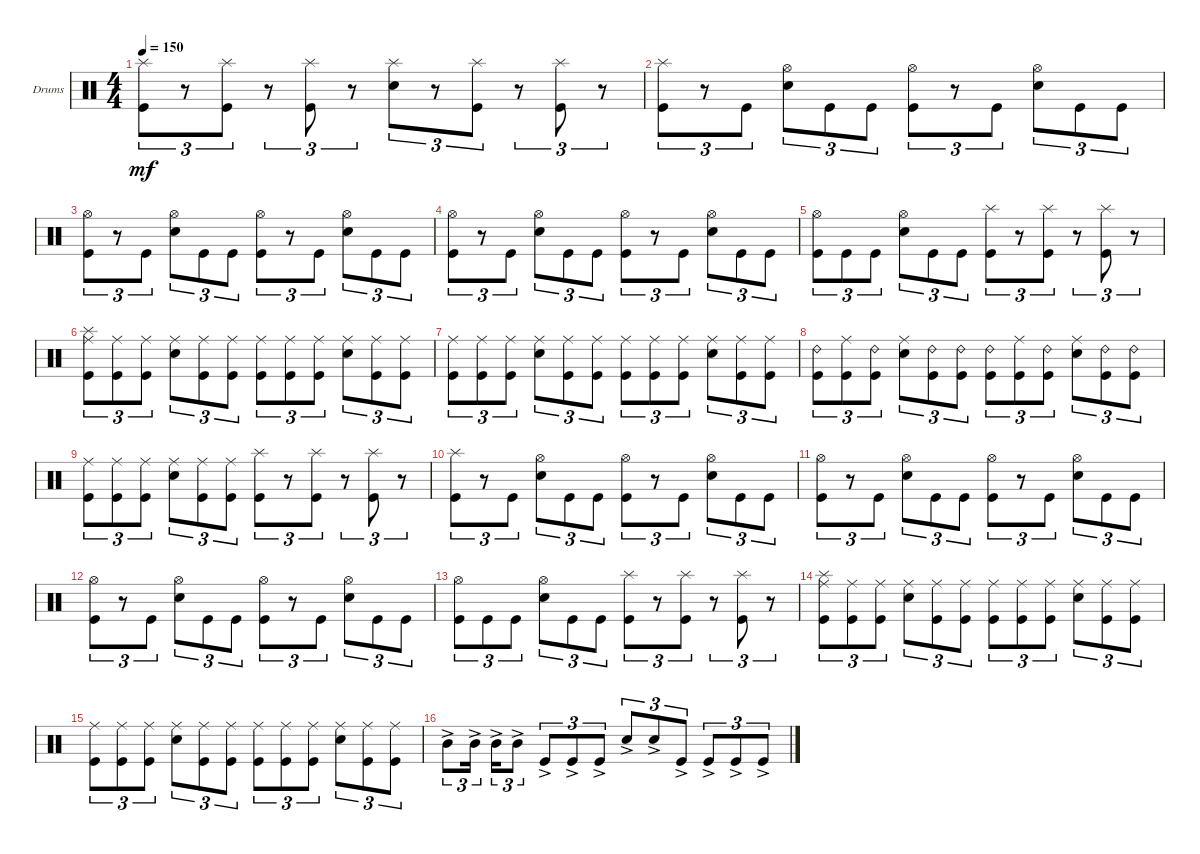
\bracketExtendMode groupsimilarinstruments
\firstSystemTrackNameOrientation horizontal
\otherSystemsTrackNameOrientation horizontal
\track ("Drumkit" "Drums") {instrument percussion}
\staff {score}
\articulation defaults
\ts (4 4)
\tempo 150
\clef neutral
\ks c
("Kick (hit)" "Splash (hit)").8{tu (3 2) dy mf} r.8{tu (3 2)} ("Kick (hit)" "Splash (hit)").8{tu (3 2)} r.8{tu (3 2)} ("Kick (hit)" "Splash (hit)").8{tu (3 2)} r.8{tu (3 2)} ("Splash (hit)" "Snare (hit) 2").8{tu (3 2)} r.8{tu (3 2)} ("Kick (hit)" "Splash (hit)").8{tu (3 2)} r.8{tu (3 2)} ("Kick (hit)" "Splash (hit)").8{tu (3 2)} r.8{tu (3 2)} |
("Kick (hit)" "Splash (hit)").8{tu (3 2)} r.8{tu (3 2)} "Kick (hit)".8{tu (3 2)} ("Snare (hit) 2" "Hi-Hat (open)").8{tu (3 2)} "Kick (hit)".8{tu (3 2)} "Kick (hit)".8{tu (3 2)} ("Kick (hit)" "Hi-Hat (open)").8{tu (3 2)} r.8{tu (3 2)} "Kick (hit)".8{tu (3 2)} ("Snare (hit) 2" "Hi-Hat (open)").8{tu (3 2)} "Kick (hit)".8{tu (3 2)} "Kick (hit)".8{tu (3 2)} |
("Kick (hit)" "Hi-Hat (open)").8{tu (3 2)} r.8{tu (3 2)} "Kick (hit)".8{tu (3 2)} ("Snare (hit) 2" "Hi-Hat (open)").8{tu (3 2)} "Kick (hit)".8{tu (3 2)} "Kick (hit)".8{tu (3 2)} ("Kick (hit)" "Hi-Hat (open)").8{tu (3 2)} r.8{tu (3 2)} "Kick (hit)".8{tu (3 2)} ("Snare (hit) 2" "Hi-Hat (open)").8{tu (3 2)} "Kick (hit)".8{tu (3 2)} "Kick (hit)".8{tu (3 2)} |
("Kick (hit)" "Hi-Hat (open)").8{tu (3 2)} r.8{tu (3 2)} "Kick (hit)".8{tu (3 2)} ("Snare (hit) 2" "Hi-Hat (open)").8{tu (3 2)} "Kick (hit)".8{tu (3 2)} "Kick (hit)".8{tu (3 2)} ("Kick (hit)" "Hi-Hat (open)").8{tu (3 2)} r.8{tu (3 2)} "Kick (hit)".8{tu (3 2)} ("Snare (hit) 2" "Hi-Hat (open)").8{tu (3 2)} "Kick (hit)".8{tu (3 2)} "Kick (hit)".8{tu (3 2)} |
("Kick (hit)" "Hi-Hat (open)").8{tu (3 2)} "Kick (hit)".8{tu (3 2)} "Kick (hit)".8{tu (3 2)} ("Snare (hit) 2" "Hi-Hat (open)").8{tu (3 2)} "Kick (hit)".8{tu (3 2)} "Kick (hit)".8{tu (3 2)} ("Kick (hit)" "Splash (hit)").8{tu (3 2)} r.8{tu (3 2)} ("Kick (hit)" "Splash (hit)").8{tu (3 2)} r.8{tu (3 2)} ("Kick (hit)" "Splash (hit)").8{tu (3 2)} r.8{tu (3 2)} |
("Kick (hit)" "Splash (hit)" "Ride (middle)").8{tu (3 2)} ("Kick (hit)" "Ride (middle)").8{tu (3 2)} ("Kick (hit)" "Ride (middle)").8{tu (3 2)} ("Ride (middle)" "Snare (hit) 2").8{tu (3 2)} ("Kick (hit)" "Ride (middle)").8{tu (3 2)} ("Kick (hit)" "Ride (middle)").8{tu (3 2)} ("Kick (hit)" "Ride (middle)").8{tu (3 2)} ("Kick (hit)" "Ride (middle)").8{tu (3 2)} ("Kick (hit)" "Ride (middle)").8{tu (3 2)} ("Ride (middle)" "Snare (hit) 2").8{tu (3 2)} ("Kick (hit)" "Ride (middle)").8{tu (3 2)} ("Kick (hit)" "Ride (middle)").8{tu (3 2)} |
("Kick (hit)" "Ride (middle)").8{tu (3 2)} ("Kick (hit)" "Ride (middle)").8{tu (3 2)} ("Kick (hit)" "Ride (middle)").8{tu (3 2)} ("Ride (middle)" "Snare (hit) 2").8{tu (3 2)} ("Kick (hit)" "Ride (middle)").8{tu (3 2)} ("Kick (hit)" "Ride (middle)").8{tu (3 2)} ("Kick (hit)" "Ride (middle)").8{tu (3 2)} ("Kick (hit)" "Ride (middle)").8{tu (3 2)} ("Kick (hit)" "Ride (middle)").8{tu (3 2)} ("Ride (middle)" "Snare (hit) 2").8{tu (3 2)} ("Kick (hit)" "Ride (middle)").8{tu (3 2)} ("Kick (hit)" "Ride (middle)").8{tu (3 2)} |
("Kick (hit)" "Ride (bell) 2").8{tu (3 2)} ("Kick (hit)" "Ride (middle)").8{tu (3 2)} ("Kick (hit)" "Ride (bell) 2").8{tu (3 2)} ("Ride (middle)" "Snare (hit) 2").8{tu (3 2)} ("Kick (hit)" "Ride (bell) 2").8{tu (3 2)} ("Kick (hit)" "Ride (bell) 2").8{tu (3 2)} ("Kick (hit)" "Ride (bell) 2").8{tu (3 2)} ("Kick (hit)" "Ride (middle)").8{tu (3 2)} ("Kick (hit)" "Ride (bell) 2").8{tu (3 2)} ("Ride (middle)" "Snare (hit) 2").8{tu (3 2)} ("Kick (hit)" "Ride (bell) 2").8{tu (3 2)} ("Kick (hit)" "Ride (bell) 2").8{tu (3 2)} |
("Kick (hit)" "Ride (middle)").8{tu (3 2)} ("Kick (hit)" "Ride (middle)").8{tu (3 2)} ("Kick (hit)" "Ride (middle)").8{tu (3 2)} ("Snare (hit) 2" "Ride (middle)").8{tu (3 2)} ("Kick (hit)" "Ride (middle)").8{tu (3 2)} ("Kick (hit)" "Ride (middle)").8{tu (3 2)} ("Kick (hit)" "Splash (hit)").8{tu (3 2)} r.8{tu (3 2)} ("Kick (hit)" "Splash (hit)").8{tu (3 2)} r.8{tu (3 2)} ("Kick (hit)" "Splash (hit)").8{tu (3 2)} r.8{tu (3 2)} |
("Kick (hit)" "Splash (hit)").8{tu (3 2)} r.8{tu (3 2)} "Kick (hit)".8{tu (3 2)} ("Snare (hit) 2" "Hi-Hat (open)").8{tu (3 2)} "Kick (hit)".8{tu (3 2)} "Kick (hit)".8{tu (3 2)} ("Kick (hit)" "Hi-Hat (open)").8{tu (3 2)} r.8{tu (3 2)} "Kick (hit)".8{tu (3 2)} ("Snare (hit) 2" "Hi-Hat (open)").8{tu (3 2)} "Kick (hit)".8{tu (3 2)} "Kick (hit)".8{tu (3 2)} |
("Kick (hit)" "Hi-Hat (open)").8{tu (3 2)} r.8{tu (3 2)} "Kick (hit)".8{tu (3 2)} ("Snare (hit) 2" "Hi-Hat (open)").8{tu (3 2)} "Kick (hit)".8{tu (3 2)} "Kick (hit)".8{tu (3 2)} ("Kick (hit)" "Hi-Hat (open)").8{tu (3 2)} r.8{tu (3 2)} "Kick (hit)".8{tu (3 2)} ("Snare (hit) 2" "Hi-Hat (open)").8{tu (3 2)} "Kick (hit)".8{tu (3 2)} "Kick (hit)".8{tu (3 2)} |
("Kick (hit)" "Hi-Hat (open)").8{tu (3 2)} r.8{tu (3 2)} "Kick (hit)".8{tu (3 2)} ("Snare (hit) 2" "Hi-Hat (open)").8{tu (3 2)} "Kick (hit)".8{tu (3 2)} "Kick (hit)".8{tu (3 2)} ("Kick (hit)" "Hi-Hat (open)").8{tu (3 2)} r.8{tu (3 2)} "Kick (hit)".8{tu (3 2)} ("Snare (hit) 2" "Hi-Hat (open)").8{tu (3 2)} "Kick (hit)".8{tu (3 2)} "Kick (hit)".8{tu (3 2)} |
("Kick (hit)" "Hi-Hat (open)").8{tu (3 2)} "Kick (hit)".8{tu (3 2)} "Kick (hit)".8{tu (3 2)} ("Snare (hit) 2" "Hi-Hat (open)").8{tu (3 2)} "Kick (hit)".8{tu (3 2)} "Kick (hit)".8{tu (3 2)} ("Kick (hit)" "Splash (hit)").8{tu (3 2)} r.8{tu (3 2)} ("Kick (hit)" "Splash (hit)").8{tu (3 2)} r.8{tu (3 2)} ("Kick (hit)" "Splash (hit)").8{tu (3 2)} r.8{tu (3 2)} |
("Kick (hit)" "Splash (hit)" "Ride (middle)").8{tu (3 2)} ("Kick (hit)" "Ride (middle)").8{tu (3 2)} ("Kick (hit)" "Ride (middle)").8{tu (3 2)} ("Ride (middle)" "Snare (hit) 2").8{tu (3 2)} ("Kick (hit)" "Ride (middle)").8{tu (3 2)} ("Kick (hit)" "Ride (middle)").8{tu (3 2)} ("Kick (hit)" "Ride (middle)").8{tu (3 2)} ("Kick (hit)" "Ride (middle)").8{tu (3 2)} ("Kick (hit)" "Ride (middle)").8{tu (3 2)} ("Ride (middle)" "Snare (hit) 2").8{tu (3 2)} ("Kick (hit)" "Ride (middle)").8{tu (3 2)} ("Kick (hit)" "Ride (middle)").8{tu (3 2)} |
("Kick (hit)" "Ride (middle)").8{tu (3 2)} ("Kick (hit)" "Ride (middle)").8{tu (3 2)} ("Kick (hit)" "Ride (middle)").8{tu (3 2)} ("Ride (middle)" "Snare (hit) 2").8{tu (3 2)} ("Kick (hit)" "Ride (middle)").8{tu (3 2)} ("Kick (hit)" "Ride (middle)").8{tu (3 2)} ("Kick (hit)" "Ride (middle)").8{tu (3 2)} ("Kick (hit)" "Ride (middle)").8{tu (3 2)} ("Kick (hit)" "Ride (middle)").8{tu (3 2)} ("Ride (middle)" "Snare (hit) 2").8{tu (3 2)} ("Kick (hit)" "Ride (middle)").8{tu (3 2)} ("Kick (hit)" "Ride (middle)").8{tu (3 2)} |
"Mid Tom (hit)"{ac}.8{tu (3 2)} "Mid Tom (hit)"{ac}.16{tu (3 2)} "Mid Tom (hit)"{ac}.16{tu (3 2)} "Mid Tom (hit)"{ac}.8{tu (3 2)} "Kick (hit)"{ac}.8{tu (3 2)} "Kick (hit)"{ac}.8{tu (3 2)} "Kick (hit)"{ac}.8{tu (3 2)} "Snare (hit) 2"{ac}.8{tu (3 2)} "Snare (hit) 2"{ac}.8{tu (3 2)} "Kick (hit)"{ac}.8{tu (3 2)} "Kick (hit)"{ac}.8{tu (3 2)} "Kick (hit)"{ac}.8{tu (3 2)} "Kick (hit)"{ac}.8{tu (3 2)}
